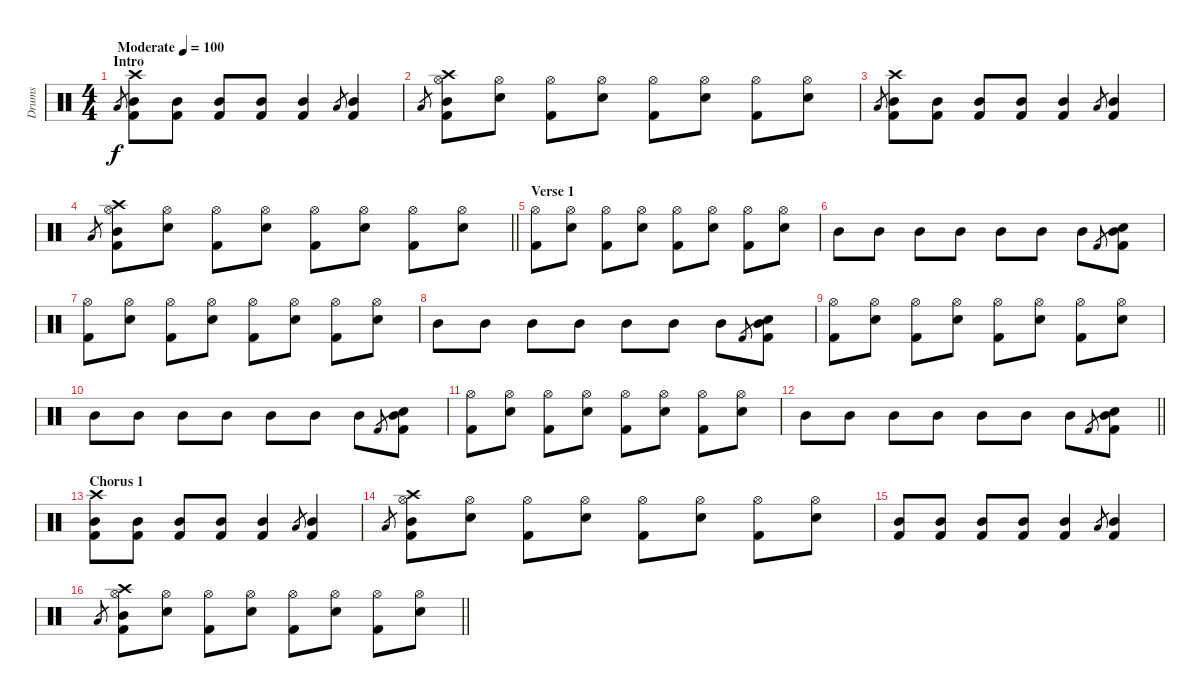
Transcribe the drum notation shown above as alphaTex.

\track ("Drums" "Drums") {instrument percussion}
\staff {score}
\articulation defaults
\ts (4 4)
\section ("" "Intro")
\tempo (100 "Moderate")
\clef neutral
\ks c "Low Floor Tom (hit)".8{gr dy f}
("Crash high (hit)" "Mid Tom (hit)" "Kick (hit) 2").8 ("Mid Tom (hit)" "Kick (hit) 2").8 ("Mid Tom (hit)" "Kick (hit) 2").8 ("Mid Tom (hit)" "Kick (hit) 2").8 ("Mid Tom (hit)" "Kick (hit) 2").4 "Low Floor Tom (hit)".8{gr} ("Mid Tom (hit)" "Kick (hit) 2").4 |
"Low Floor Tom (hit)".8{gr} ("Crash high (hit)" "Hi-Hat (open)" "Mid Tom (hit)" "Kick (hit) 2").8 ("Hi-Hat (open)" "Snare (hit) 2").8 ("Hi-Hat (open)" "Kick (hit) 2").8 ("Hi-Hat (open)" "Snare (hit) 2").8 ("Hi-Hat (open)" "Kick (hit) 2").8 ("Hi-Hat (open)" "Snare (hit) 2").8 ("Hi-Hat (open)" "Kick (hit) 2").8 ("Hi-Hat (open)" "Snare (hit) 2").8 |
"Low Floor Tom (hit)".8{gr} ("Crash high (hit)" "Mid Tom (hit)" "Kick (hit) 2").8 ("Mid Tom (hit)" "Kick (hit) 2").8 ("Mid Tom (hit)" "Kick (hit) 2").8 ("Mid Tom (hit)" "Kick (hit) 2").8 ("Mid Tom (hit)" "Kick (hit) 2").4 "Low Floor Tom (hit)".8{gr} ("Mid Tom (hit)" "Kick (hit) 2").4 |
\barLineRight lightlight "Low Floor Tom (hit)".8{gr}
("Crash high (hit)" "Hi-Hat (open)" "Mid Tom (hit)" "Kick (hit) 2").8 ("Hi-Hat (open)" "Snare (hit) 2").8 ("Hi-Hat (open)" "Kick (hit) 2").8 ("Hi-Hat (open)" "Snare (hit) 2").8 ("Hi-Hat (open)" "Kick (hit) 2").8 ("Hi-Hat (open)" "Snare (hit) 2").8 ("Hi-Hat (open)" "Kick (hit) 2").8 ("Hi-Hat (open)" "Snare (hit) 2").8 |
\section ("" "Verse 1")
("Hi-Hat (open)" "Kick (hit) 2").8 ("Hi-Hat (open)" "Snare (hit) 2").8 ("Hi-Hat (open)" "Kick (hit) 2").8 ("Hi-Hat (open)" "Snare (hit) 2").8 ("Hi-Hat (open)" "Kick (hit) 2").8 ("Hi-Hat (open)" "Snare (hit) 2").8 ("Hi-Hat (open)" "Kick (hit) 2").8 ("Hi-Hat (open)" "Snare (hit) 2").8 |
"Mid Tom (hit)".8 "Mid Tom (hit)".8 "Mid Tom (hit)".8 "Mid Tom (hit)".8 "Mid Tom (hit)".8 "Mid Tom (hit)".8 "Mid Tom (hit)".8 "Kick (hit) 2".8{gr} ("Mid Tom (hit)" "Snare (hit) 2" "Kick (hit) 2").8 |
("Hi-Hat (open)" "Kick (hit) 2").8 ("Hi-Hat (open)" "Snare (hit) 2").8 ("Hi-Hat (open)" "Kick (hit) 2").8 ("Hi-Hat (open)" "Snare (hit) 2").8 ("Hi-Hat (open)" "Kick (hit) 2").8 ("Hi-Hat (open)" "Snare (hit) 2").8 ("Hi-Hat (open)" "Kick (hit) 2").8 ("Hi-Hat (open)" "Snare (hit) 2").8 |
"Mid Tom (hit)".8 "Mid Tom (hit)".8 "Mid Tom (hit)".8 "Mid Tom (hit)".8 "Mid Tom (hit)".8 "Mid Tom (hit)".8 "Mid Tom (hit)".8 "Kick (hit) 2".8{gr} ("Mid Tom (hit)" "Snare (hit) 2" "Kick (hit) 2").8 |
("Hi-Hat (open)" "Kick (hit) 2").8 ("Hi-Hat (open)" "Snare (hit) 2").8 ("Hi-Hat (open)" "Kick (hit) 2").8 ("Hi-Hat (open)" "Snare (hit) 2").8 ("Hi-Hat (open)" "Kick (hit) 2").8 ("Hi-Hat (open)" "Snare (hit) 2").8 ("Hi-Hat (open)" "Kick (hit) 2").8 ("Hi-Hat (open)" "Snare (hit) 2").8 |
"Mid Tom (hit)".8 "Mid Tom (hit)".8 "Mid Tom (hit)".8 "Mid Tom (hit)".8 "Mid Tom (hit)".8 "Mid Tom (hit)".8 "Mid Tom (hit)".8 "Kick (hit) 2".8{gr} ("Mid Tom (hit)" "Snare (hit) 2" "Kick (hit) 2").8 |
("Hi-Hat (open)" "Kick (hit) 2").8 ("Hi-Hat (open)" "Snare (hit) 2").8 ("Hi-Hat (open)" "Kick (hit) 2").8 ("Hi-Hat (open)" "Snare (hit) 2").8 ("Hi-Hat (open)" "Kick (hit) 2").8 ("Hi-Hat (open)" "Snare (hit) 2").8 ("Hi-Hat (open)" "Kick (hit) 2").8 ("Hi-Hat (open)" "Snare (hit) 2").8 |
\barLineRight lightlight "Mid Tom (hit)".8 "Mid Tom (hit)".8 "Mid Tom (hit)".8 "Mid Tom (hit)".8 "Mid Tom (hit)".8 "Mid Tom (hit)".8 "Mid Tom (hit)".8 "Kick (hit) 2".8{gr}
("Mid Tom (hit)" "Snare (hit) 2" "Kick (hit) 2").8 |
\section ("" "Chorus 1")
("Crash high (hit)" "Mid Tom (hit)" "Kick (hit) 2").8 ("Mid Tom (hit)" "Kick (hit) 2").8 ("Mid Tom (hit)" "Kick (hit) 2").8 ("Mid Tom (hit)" "Kick (hit) 2").8 ("Mid Tom (hit)" "Kick (hit) 2").4 "Low Floor Tom (hit)".8{gr} ("Mid Tom (hit)" "Kick (hit) 2").4 |
"Low Floor Tom (hit)".8{gr} ("Crash high (hit)" "Hi-Hat (open)" "Mid Tom (hit)" "Kick (hit) 2").8 ("Hi-Hat (open)" "Snare (hit) 2").8 ("Hi-Hat (open)" "Kick (hit) 2").8 ("Hi-Hat (open)" "Snare (hit) 2").8 ("Hi-Hat (open)" "Kick (hit) 2").8 ("Hi-Hat (open)" "Snare (hit) 2").8 ("Hi-Hat (open)" "Kick (hit) 2").8 ("Hi-Hat (open)" "Snare (hit) 2").8 |
("Mid Tom (hit)" "Kick (hit) 2").8 ("Mid Tom (hit)" "Kick (hit) 2").8 ("Mid Tom (hit)" "Kick (hit) 2").8 ("Mid Tom (hit)" "Kick (hit) 2").8 ("Mid Tom (hit)" "Kick (hit) 2").4 "Low Floor Tom (hit)".8{gr} ("Mid Tom (hit)" "Kick (hit) 2").4 |
\barLineRight lightlight "Low Floor Tom (hit)".8{gr}
("Crash high (hit)" "Hi-Hat (open)" "Mid Tom (hit)" "Kick (hit) 2").8 ("Hi-Hat (open)" "Snare (hit) 2").8 ("Hi-Hat (open)" "Kick (hit) 2").8 ("Hi-Hat (open)" "Snare (hit) 2").8 ("Hi-Hat (open)" "Kick (hit) 2").8 ("Hi-Hat (open)" "Snare (hit) 2").8 ("Hi-Hat (open)" "Kick (hit) 2").8 ("Hi-Hat (open)" "Snare (hit) 2").8
